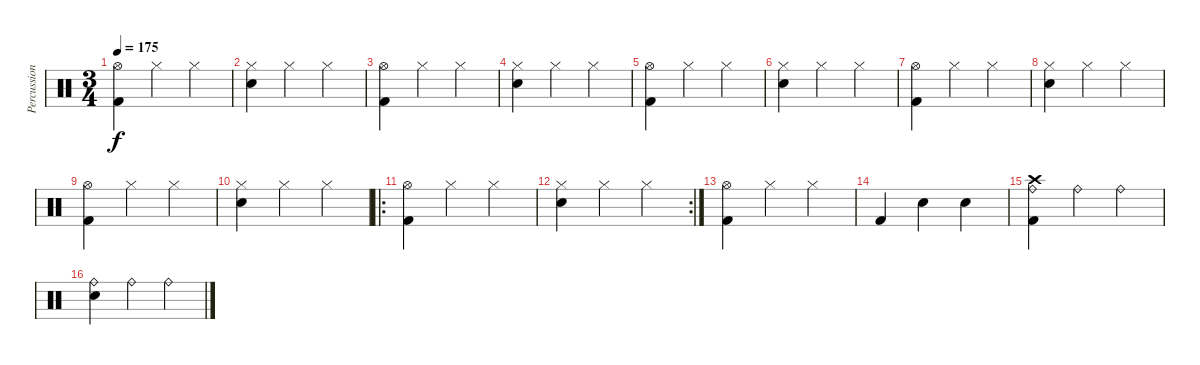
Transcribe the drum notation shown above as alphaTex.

\track ("Percussion" "Percussion") {instrument percussion}
\staff {score}
\articulation defaults
\ts (3 4)
\tempo 175
\clef neutral
\ks c
("Hi-Hat (open)" "Kick (hit) 2").4{dy f} "Hi-Hat (closed)".4 "Hi-Hat (closed)".4 |
("Electric Snare (hit)" "Hi-Hat (closed)").4 "Hi-Hat (closed)".4 "Hi-Hat (closed)".4 |
("Hi-Hat (open)" "Kick (hit) 2").4 "Hi-Hat (closed)".4 "Hi-Hat (closed)".4 |
("Electric Snare (hit)" "Hi-Hat (closed)").4 "Hi-Hat (closed)".4 "Hi-Hat (closed)".4 |
("Hi-Hat (open)" "Kick (hit) 2").4 "Hi-Hat (closed)".4 "Hi-Hat (closed)".4 |
("Electric Snare (hit)" "Hi-Hat (closed)").4 "Hi-Hat (closed)".4 "Hi-Hat (closed)".4 |
("Hi-Hat (open)" "Kick (hit) 2").4 "Hi-Hat (closed)".4 "Hi-Hat (closed)".4 |
("Electric Snare (hit)" "Hi-Hat (closed)").4 "Hi-Hat (closed)".4 "Hi-Hat (closed)".4 |
("Hi-Hat (open)" "Kick (hit) 2").4 "Hi-Hat (closed)".4 "Hi-Hat (closed)".4 |
("Electric Snare (hit)" "Hi-Hat (closed)").4 "Hi-Hat (closed)".4 "Hi-Hat (closed)".4 |
\ro
("Hi-Hat (open)" "Kick (hit) 2").4 "Hi-Hat (closed)".4 "Hi-Hat (closed)".4 |
\rc 2
("Electric Snare (hit)" "Hi-Hat (closed)").4 "Hi-Hat (closed)".4 "Hi-Hat (closed)".4 |
("Hi-Hat (open)" "Kick (hit) 2").4 "Hi-Hat (closed)".4 "Hi-Hat (closed)".4 |
"Kick (hit) 2".4 "Electric Snare (hit)".4 "Electric Snare (hit)".4 |
("Crash high (hit)" "Ride (bell)" "Kick (hit) 2").4 "Ride (bell)".4 "Ride (bell)".4 |
("Ride (bell)" "Electric Snare (hit)").4 "Ride (bell)".4 "Ride (bell)".4
